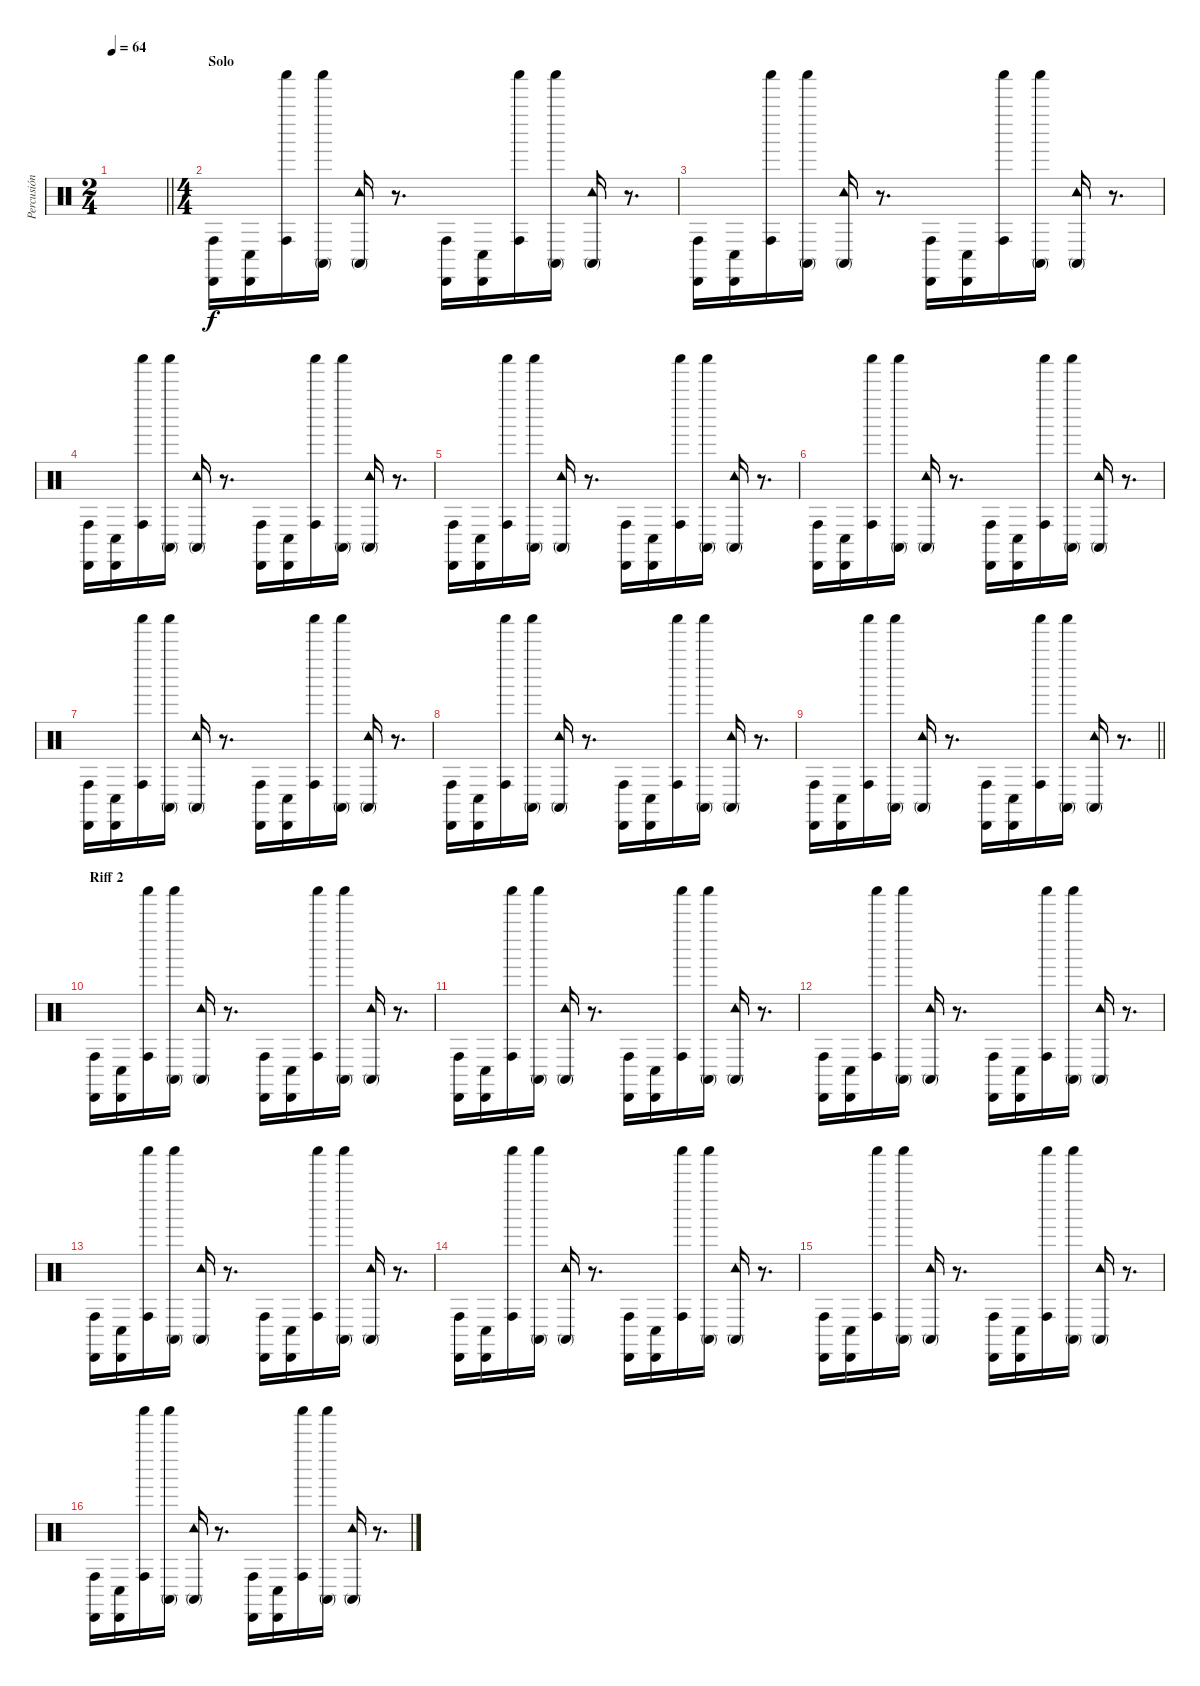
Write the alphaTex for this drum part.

\track ("Percusión" "Percusión") {instrument percussion}
\staff {score}
\articulation defaults
\ts (2 4)
\tempo 64
\clef neutral
\barLineRight lightlight
\ks c
|
\ts (4 4)
\section ("" "Solo")
("Conga high (hit)" "Cabasa (hit)").16 ("Conga low (hit)" "Cabasa (hit)").16 ("Conga high (hit)" "Shaker (hit)").16 ("Conga high (mute)" "Shaker (hit)").16 ("Conga high (mute)" "Tambourine (hit)").16 r.8{d} ("Conga high (hit)" "Cabasa (hit)").16 ("Conga low (hit)" "Cabasa (hit)").16 ("Conga high (hit)" "Shaker (hit)").16 ("Conga high (mute)" "Shaker (hit)").16 ("Conga high (mute)" "Tambourine (hit)").16 r.8{d} |
("Conga high (hit)" "Cabasa (hit)").16 ("Conga low (hit)" "Cabasa (hit)").16 ("Conga high (hit)" "Shaker (hit)").16 ("Conga high (mute)" "Shaker (hit)").16 ("Conga high (mute)" "Tambourine (hit)").16 r.8{d} ("Conga high (hit)" "Cabasa (hit)").16 ("Conga low (hit)" "Cabasa (hit)").16 ("Conga high (hit)" "Shaker (hit)").16 ("Conga high (mute)" "Shaker (hit)").16 ("Conga high (mute)" "Tambourine (hit)").16 r.8{d} |
("Conga high (hit)" "Cabasa (hit)").16 ("Conga low (hit)" "Cabasa (hit)").16 ("Conga high (hit)" "Shaker (hit)").16 ("Conga high (mute)" "Shaker (hit)").16 ("Conga high (mute)" "Tambourine (hit)").16 r.8{d} ("Conga high (hit)" "Cabasa (hit)").16 ("Conga low (hit)" "Cabasa (hit)").16 ("Conga high (hit)" "Shaker (hit)").16 ("Conga high (mute)" "Shaker (hit)").16 ("Conga high (mute)" "Tambourine (hit)").16 r.8{d} |
("Conga high (hit)" "Cabasa (hit)").16 ("Conga low (hit)" "Cabasa (hit)").16 ("Conga high (hit)" "Shaker (hit)").16 ("Conga high (mute)" "Shaker (hit)").16 ("Conga high (mute)" "Tambourine (hit)").16 r.8{d} ("Conga high (hit)" "Cabasa (hit)").16 ("Conga low (hit)" "Cabasa (hit)").16 ("Conga high (hit)" "Shaker (hit)").16 ("Conga high (mute)" "Shaker (hit)").16 ("Conga high (mute)" "Tambourine (hit)").16 r.8{d} |
("Conga high (hit)" "Cabasa (hit)").16 ("Conga low (hit)" "Cabasa (hit)").16 ("Conga high (hit)" "Shaker (hit)").16 ("Conga high (mute)" "Shaker (hit)").16 ("Conga high (mute)" "Tambourine (hit)").16 r.8{d} ("Conga high (hit)" "Cabasa (hit)").16 ("Conga low (hit)" "Cabasa (hit)").16 ("Conga high (hit)" "Shaker (hit)").16 ("Conga high (mute)" "Shaker (hit)").16 ("Conga high (mute)" "Tambourine (hit)").16 r.8{d} |
("Conga high (hit)" "Cabasa (hit)").16 ("Conga low (hit)" "Cabasa (hit)").16 ("Conga high (hit)" "Shaker (hit)").16 ("Conga high (mute)" "Shaker (hit)").16 ("Conga high (mute)" "Tambourine (hit)").16 r.8{d} ("Conga high (hit)" "Cabasa (hit)").16 ("Conga low (hit)" "Cabasa (hit)").16 ("Conga high (hit)" "Shaker (hit)").16 ("Conga high (mute)" "Shaker (hit)").16 ("Conga high (mute)" "Tambourine (hit)").16 r.8{d} |
("Conga high (hit)" "Cabasa (hit)").16 ("Conga low (hit)" "Cabasa (hit)").16 ("Conga high (hit)" "Shaker (hit)").16 ("Conga high (mute)" "Shaker (hit)").16 ("Conga high (mute)" "Tambourine (hit)").16 r.8{d} ("Conga high (hit)" "Cabasa (hit)").16 ("Conga low (hit)" "Cabasa (hit)").16 ("Conga high (hit)" "Shaker (hit)").16 ("Conga high (mute)" "Shaker (hit)").16 ("Conga high (mute)" "Tambourine (hit)").16 r.8{d} |
\barLineRight lightlight
("Conga high (hit)" "Cabasa (hit)").16 ("Conga low (hit)" "Cabasa (hit)").16 ("Conga high (hit)" "Shaker (hit)").16 ("Conga high (mute)" "Shaker (hit)").16 ("Conga high (mute)" "Tambourine (hit)").16 r.8{d} ("Conga high (hit)" "Cabasa (hit)").16 ("Conga low (hit)" "Cabasa (hit)").16 ("Conga high (hit)" "Shaker (hit)").16 ("Conga high (mute)" "Shaker (hit)").16 ("Conga high (mute)" "Tambourine (hit)").16 r.8{d} |
\section ("" "Riff 2")
("Conga high (hit)" "Cabasa (hit)").16 ("Conga low (hit)" "Cabasa (hit)").16 ("Conga high (hit)" "Shaker (hit)").16 ("Conga high (mute)" "Shaker (hit)").16 ("Conga high (mute)" "Tambourine (hit)").16 r.8{d} ("Conga high (hit)" "Cabasa (hit)").16 ("Conga low (hit)" "Cabasa (hit)").16 ("Conga high (hit)" "Shaker (hit)").16 ("Conga high (mute)" "Shaker (hit)").16 ("Conga high (mute)" "Tambourine (hit)").16 r.8{d} |
("Conga high (hit)" "Cabasa (hit)").16 ("Conga low (hit)" "Cabasa (hit)").16 ("Conga high (hit)" "Shaker (hit)").16 ("Conga high (mute)" "Shaker (hit)").16 ("Conga high (mute)" "Tambourine (hit)").16 r.8{d} ("Conga high (hit)" "Cabasa (hit)").16 ("Conga low (hit)" "Cabasa (hit)").16 ("Conga high (hit)" "Shaker (hit)").16 ("Conga high (mute)" "Shaker (hit)").16 ("Conga high (mute)" "Tambourine (hit)").16 r.8{d} |
("Conga high (hit)" "Cabasa (hit)").16 ("Conga low (hit)" "Cabasa (hit)").16 ("Conga high (hit)" "Shaker (hit)").16 ("Conga high (mute)" "Shaker (hit)").16 ("Conga high (mute)" "Tambourine (hit)").16 r.8{d} ("Conga high (hit)" "Cabasa (hit)").16 ("Conga low (hit)" "Cabasa (hit)").16 ("Conga high (hit)" "Shaker (hit)").16 ("Conga high (mute)" "Shaker (hit)").16 ("Conga high (mute)" "Tambourine (hit)").16 r.8{d} |
("Conga high (hit)" "Cabasa (hit)").16 ("Conga low (hit)" "Cabasa (hit)").16 ("Conga high (hit)" "Shaker (hit)").16 ("Conga high (mute)" "Shaker (hit)").16 ("Conga high (mute)" "Tambourine (hit)").16 r.8{d} ("Conga high (hit)" "Cabasa (hit)").16 ("Conga low (hit)" "Cabasa (hit)").16 ("Conga high (hit)" "Shaker (hit)").16 ("Conga high (mute)" "Shaker (hit)").16 ("Conga high (mute)" "Tambourine (hit)").16 r.8{d} |
("Conga high (hit)" "Cabasa (hit)").16 ("Conga low (hit)" "Cabasa (hit)").16 ("Conga high (hit)" "Shaker (hit)").16 ("Conga high (mute)" "Shaker (hit)").16 ("Conga high (mute)" "Tambourine (hit)").16 r.8{d} ("Conga high (hit)" "Cabasa (hit)").16 ("Conga low (hit)" "Cabasa (hit)").16 ("Conga high (hit)" "Shaker (hit)").16 ("Conga high (mute)" "Shaker (hit)").16 ("Conga high (mute)" "Tambourine (hit)").16 r.8{d} |
("Conga high (hit)" "Cabasa (hit)").16 ("Conga low (hit)" "Cabasa (hit)").16 ("Conga high (hit)" "Shaker (hit)").16 ("Conga high (mute)" "Shaker (hit)").16 ("Conga high (mute)" "Tambourine (hit)").16 r.8{d} ("Conga high (hit)" "Cabasa (hit)").16 ("Conga low (hit)" "Cabasa (hit)").16 ("Conga high (hit)" "Shaker (hit)").16 ("Conga high (mute)" "Shaker (hit)").16 ("Conga high (mute)" "Tambourine (hit)").16 r.8{d} |
("Conga high (hit)" "Cabasa (hit)").16 ("Conga low (hit)" "Cabasa (hit)").16 ("Conga high (hit)" "Shaker (hit)").16 ("Conga high (mute)" "Shaker (hit)").16 ("Conga high (mute)" "Tambourine (hit)").16 r.8{d} ("Conga high (hit)" "Cabasa (hit)").16 ("Conga low (hit)" "Cabasa (hit)").16 ("Conga high (hit)" "Shaker (hit)").16 ("Conga high (mute)" "Shaker (hit)").16 ("Conga high (mute)" "Tambourine (hit)").16 r.8{d}
